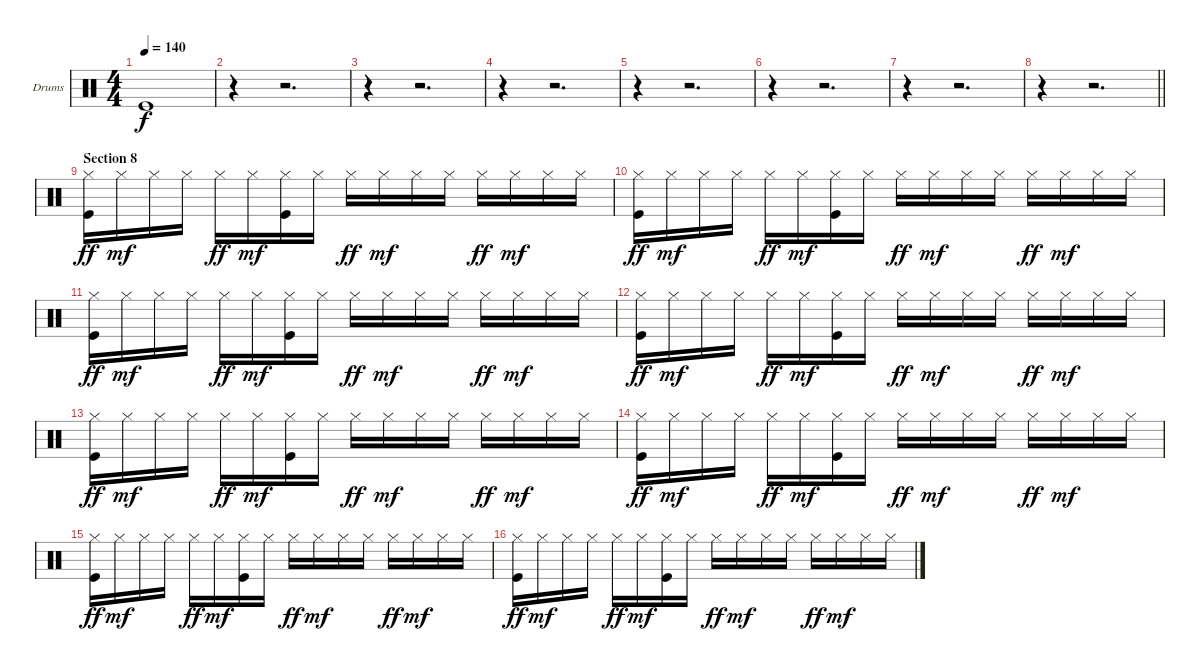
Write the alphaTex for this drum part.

\bracketExtendMode groupsimilarinstruments
\firstSystemTrackNameOrientation horizontal
\otherSystemsTrackNameOrientation horizontal
\track ("Drumkit" "Drums") {instrument percussion}
\staff {score}
\articulation defaults
\ts (4 4)
\tempo 140
\clef neutral
\ks c "Kick (hit)".1{dy f}
|
r.4 r.2{d} |
r.4 r.2{d} |
r.4 r.2{d} |
r.4 r.2{d} |
r.4 r.2{d} |
r.4 r.2{d} |
\barLineRight lightlight
r.4 r.2{d} |
\section ("" "Section 8")
("Hi-Hat (closed)" "Kick (hit)").16{dy ff} "Hi-Hat (closed)".16{dy mf} "Hi-Hat (closed)".16 "Hi-Hat (closed)".16 "Hi-Hat (closed)".16{dy ff} "Hi-Hat (closed)".16{dy mf} ("Hi-Hat (closed)" "Kick (hit)").16 "Hi-Hat (closed)".16 "Hi-Hat (closed)".16{dy ff} "Hi-Hat (closed)".16{dy mf} "Hi-Hat (closed)".16 "Hi-Hat (closed)".16 "Hi-Hat (closed)".16{dy ff} "Hi-Hat (closed)".16{dy mf} "Hi-Hat (closed)".16 "Hi-Hat (closed)".16 |
("Hi-Hat (closed)" "Kick (hit)").16{dy ff} "Hi-Hat (closed)".16{dy mf} "Hi-Hat (closed)".16 "Hi-Hat (closed)".16 "Hi-Hat (closed)".16{dy ff} "Hi-Hat (closed)".16{dy mf} ("Hi-Hat (closed)" "Kick (hit)").16 "Hi-Hat (closed)".16 "Hi-Hat (closed)".16{dy ff} "Hi-Hat (closed)".16{dy mf} "Hi-Hat (closed)".16 "Hi-Hat (closed)".16 "Hi-Hat (closed)".16{dy ff} "Hi-Hat (closed)".16{dy mf} "Hi-Hat (closed)".16 "Hi-Hat (closed)".16 |
("Hi-Hat (closed)" "Kick (hit)").16{dy ff} "Hi-Hat (closed)".16{dy mf} "Hi-Hat (closed)".16 "Hi-Hat (closed)".16 "Hi-Hat (closed)".16{dy ff} "Hi-Hat (closed)".16{dy mf} ("Hi-Hat (closed)" "Kick (hit)").16 "Hi-Hat (closed)".16 "Hi-Hat (closed)".16{dy ff} "Hi-Hat (closed)".16{dy mf} "Hi-Hat (closed)".16 "Hi-Hat (closed)".16 "Hi-Hat (closed)".16{dy ff} "Hi-Hat (closed)".16{dy mf} "Hi-Hat (closed)".16 "Hi-Hat (closed)".16 |
("Hi-Hat (closed)" "Kick (hit)").16{dy ff} "Hi-Hat (closed)".16{dy mf} "Hi-Hat (closed)".16 "Hi-Hat (closed)".16 "Hi-Hat (closed)".16{dy ff} "Hi-Hat (closed)".16{dy mf} ("Hi-Hat (closed)" "Kick (hit)").16 "Hi-Hat (closed)".16 "Hi-Hat (closed)".16{dy ff} "Hi-Hat (closed)".16{dy mf} "Hi-Hat (closed)".16 "Hi-Hat (closed)".16 "Hi-Hat (closed)".16{dy ff} "Hi-Hat (closed)".16{dy mf} "Hi-Hat (closed)".16 "Hi-Hat (closed)".16 |
("Hi-Hat (closed)" "Kick (hit)").16{dy ff} "Hi-Hat (closed)".16{dy mf} "Hi-Hat (closed)".16 "Hi-Hat (closed)".16 "Hi-Hat (closed)".16{dy ff} "Hi-Hat (closed)".16{dy mf} ("Hi-Hat (closed)" "Kick (hit)").16 "Hi-Hat (closed)".16 "Hi-Hat (closed)".16{dy ff} "Hi-Hat (closed)".16{dy mf} "Hi-Hat (closed)".16 "Hi-Hat (closed)".16 "Hi-Hat (closed)".16{dy ff} "Hi-Hat (closed)".16{dy mf} "Hi-Hat (closed)".16 "Hi-Hat (closed)".16 |
("Hi-Hat (closed)" "Kick (hit)").16{dy ff} "Hi-Hat (closed)".16{dy mf} "Hi-Hat (closed)".16 "Hi-Hat (closed)".16 "Hi-Hat (closed)".16{dy ff} "Hi-Hat (closed)".16{dy mf} ("Hi-Hat (closed)" "Kick (hit)").16 "Hi-Hat (closed)".16 "Hi-Hat (closed)".16{dy ff} "Hi-Hat (closed)".16{dy mf} "Hi-Hat (closed)".16 "Hi-Hat (closed)".16 "Hi-Hat (closed)".16{dy ff} "Hi-Hat (closed)".16{dy mf} "Hi-Hat (closed)".16 "Hi-Hat (closed)".16 |
("Hi-Hat (closed)" "Kick (hit)").16{dy ff} "Hi-Hat (closed)".16{dy mf} "Hi-Hat (closed)".16 "Hi-Hat (closed)".16 "Hi-Hat (closed)".16{dy ff} "Hi-Hat (closed)".16{dy mf} ("Hi-Hat (closed)" "Kick (hit)").16 "Hi-Hat (closed)".16 "Hi-Hat (closed)".16{dy ff} "Hi-Hat (closed)".16{dy mf} "Hi-Hat (closed)".16 "Hi-Hat (closed)".16 "Hi-Hat (closed)".16{dy ff} "Hi-Hat (closed)".16{dy mf} "Hi-Hat (closed)".16 "Hi-Hat (closed)".16 |
("Hi-Hat (closed)" "Kick (hit)").16{dy ff} "Hi-Hat (closed)".16{dy mf} "Hi-Hat (closed)".16 "Hi-Hat (closed)".16 "Hi-Hat (closed)".16{dy ff} "Hi-Hat (closed)".16{dy mf} ("Hi-Hat (closed)" "Kick (hit)").16 "Hi-Hat (closed)".16 "Hi-Hat (closed)".16{dy ff} "Hi-Hat (closed)".16{dy mf} "Hi-Hat (closed)".16 "Hi-Hat (closed)".16 "Hi-Hat (closed)".16{dy ff} "Hi-Hat (closed)".16{dy mf} "Hi-Hat (closed)".16 "Hi-Hat (closed)".16
